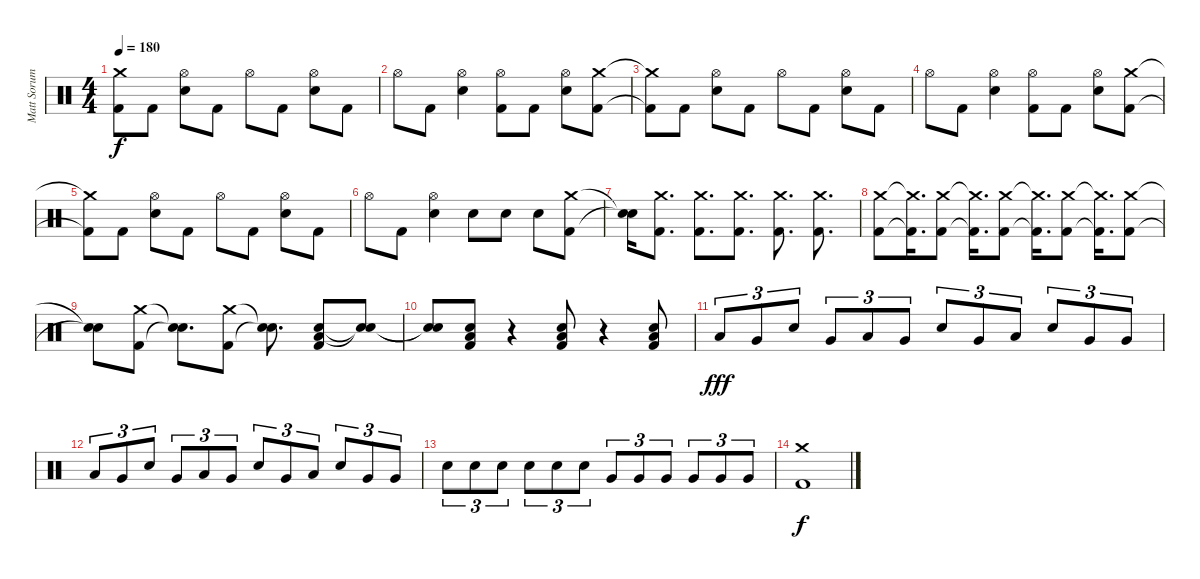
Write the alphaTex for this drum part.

\track ("Matt Sorum" "Matt Sorum") {instrument percussion}
\staff {score}
\articulation defaults
\ts (4 4)
\tempo 180
\clef neutral
\ks c
("Crash medium (hit)"{t} "Kick (hit) 2"{t}).8{dy f} "Kick (hit) 2".8 ("Hi-Hat (open)" "Electric Snare (hit)").8 "Kick (hit) 2".8 "Hi-Hat (open)".8 "Kick (hit) 2".8 ("Hi-Hat (open)" "Electric Snare (hit)").8 "Kick (hit) 2".8 |
"Hi-Hat (open)".8 "Kick (hit) 2".8 ("Hi-Hat (open)" "Electric Snare (hit)").4 ("Hi-Hat (open)" "Kick (hit) 2").8 "Kick (hit) 2".8 ("Hi-Hat (open)" "Electric Snare (hit)").8 ("Crash medium (hit)" "Kick (hit) 2").8 |
("Crash medium (hit)"{t} "Kick (hit) 2"{t}).8 "Kick (hit) 2".8 ("Hi-Hat (open)" "Electric Snare (hit)").8 "Kick (hit) 2".8 "Hi-Hat (open)".8 "Kick (hit) 2".8 ("Hi-Hat (open)" "Electric Snare (hit)").8 "Kick (hit) 2".8 |
"Hi-Hat (open)".8 "Kick (hit) 2".8 ("Hi-Hat (open)" "Electric Snare (hit)").4 ("Hi-Hat (open)" "Kick (hit) 2").8 "Kick (hit) 2".8 ("Hi-Hat (open)" "Electric Snare (hit)").8 ("Crash medium (hit)" "Kick (hit) 2").8 |
("Crash medium (hit)"{t} "Kick (hit) 2"{t}).8 "Kick (hit) 2".8 ("Hi-Hat (open)" "Electric Snare (hit)").8 "Kick (hit) 2".8 "Hi-Hat (open)".8 "Kick (hit) 2".8 ("Hi-Hat (open)" "Electric Snare (hit)").8 "Kick (hit) 2".8 |
"Hi-Hat (open)".8 "Kick (hit) 2".8 ("Hi-Hat (open)" "Electric Snare (hit)").4 "Electric Snare (hit)".8 "Electric Snare (hit)".8 "Electric Snare (hit)".8 ("Crash medium (hit)" "Kick (hit) 2").8 |
("Snare (hit)"{t} "Snare (hit)"{t}).16 ("Crash medium (hit)" "Kick (hit) 2").8{d} ("Crash medium (hit)" "Kick (hit) 2").8{d} ("Crash medium (hit)" "Kick (hit) 2").8{d} ("Crash medium (hit)" "Kick (hit) 2").8{d} ("Crash medium (hit)" "Kick (hit) 2").8{d} |
("Crash medium (hit)" "Kick (hit) 2").8 ("Crash medium (hit)"{t} "Kick (hit) 2"{t}).16{d} ("Crash medium (hit)" "Kick (hit) 2").8 ("Crash medium (hit)"{t} "Kick (hit) 2"{t}).16{d} ("Crash medium (hit)" "Kick (hit) 2").8 ("Crash medium (hit)"{t} "Kick (hit) 2"{t}).16{d} ("Crash medium (hit)" "Kick (hit) 2").8 ("Crash medium (hit)"{t} "Kick (hit) 2"{t}).16{d} ("Crash medium (hit)" "Kick (hit) 2").8 |
("Snare (hit)"{t} "Snare (hit)"{t}).8 ("Crash medium (hit)" "Kick (hit) 2").8 ("Snare (hit)"{t} "Snare (hit)"{t}).8{d} ("Crash medium (hit)" "Kick (hit) 2").8 ("Snare (hit)"{t} "Snare (hit)"{t}).8{d} ("Low Floor Tom (hit)" "Electric Snare (hit)" "Kick (hit) 2").8 ("Snare (hit)"{t} "Snare (hit)"{t}).8 |
("Snare (hit)"{t} "Snare (hit)"{t}).8 ("Low Floor Tom (hit)" "Electric Snare (hit)" "Kick (hit) 2").8 r.4 ("Low Floor Tom (hit)" "Electric Snare (hit)" "Kick (hit) 2").8 r.4 ("Low Floor Tom (hit)" "Electric Snare (hit)" "Kick (hit) 2").8 |
"Low Floor Tom (hit)".8{tu (3 2) dy fff} "Very Low Tom (hit)".8{tu (3 2)} "Electric Snare (hit)".8{tu (3 2)} "Very Low Tom (hit)".8{tu (3 2)} "Low Floor Tom (hit)".8{tu (3 2)} "Very Low Tom (hit)".8{tu (3 2)} "Electric Snare (hit)".8{tu (3 2)} "Very Low Tom (hit)".8{tu (3 2)} "Low Floor Tom (hit)".8{tu (3 2)} "Electric Snare (hit)".8{tu (3 2)} "Very Low Tom (hit)".8{tu (3 2)} "Very Low Tom (hit)".8{tu (3 2)} |
"Low Floor Tom (hit)".8{tu (3 2)} "Very Low Tom (hit)".8{tu (3 2)} "Electric Snare (hit)".8{tu (3 2)} "Very Low Tom (hit)".8{tu (3 2)} "Low Floor Tom (hit)".8{tu (3 2)} "Very Low Tom (hit)".8{tu (3 2)} "Electric Snare (hit)".8{tu (3 2)} "Very Low Tom (hit)".8{tu (3 2)} "Low Floor Tom (hit)".8{tu (3 2)} "Electric Snare (hit)".8{tu (3 2)} "Very Low Tom (hit)".8{tu (3 2)} "Very Low Tom (hit)".8{tu (3 2)} |
"Electric Snare (hit)".8{tu (3 2)} "Electric Snare (hit)".8{tu (3 2)} "Electric Snare (hit)".8{tu (3 2)} "Electric Snare (hit)".8{tu (3 2)} "Electric Snare (hit)".8{tu (3 2)} "Electric Snare (hit)".8{tu (3 2)} "Very Low Tom (hit)".8{tu (3 2)} "Very Low Tom (hit)".8{tu (3 2)} "Very Low Tom (hit)".8{tu (3 2)} "Very Low Tom (hit)".8{tu (3 2)} "Very Low Tom (hit)".8{tu (3 2)} "Very Low Tom (hit)".8{tu (3 2)} |
("Crash medium (hit)" "Kick (hit) 2").1{dy f}
